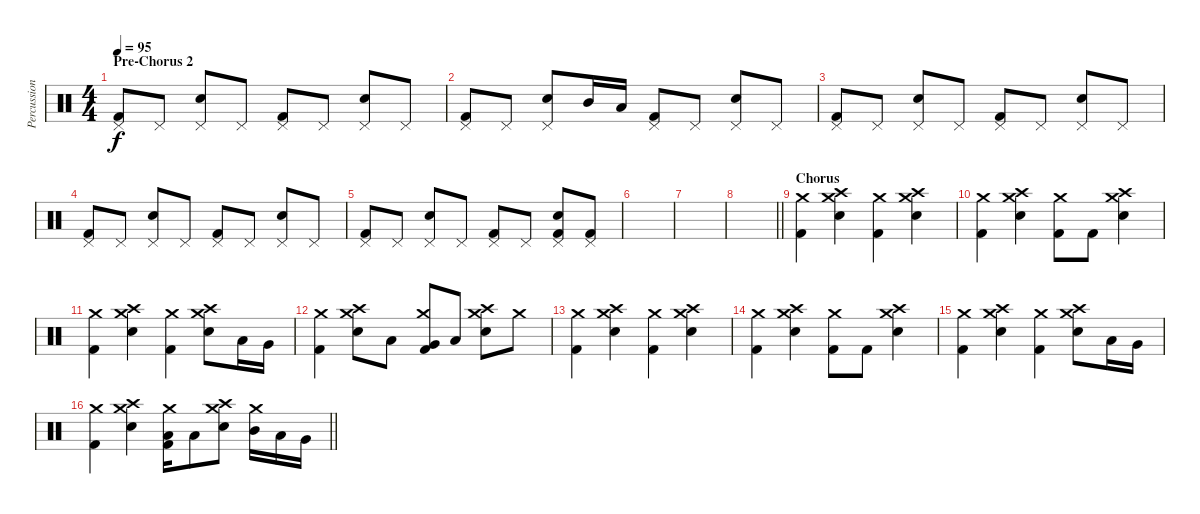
\track ("Percussion" "Percussion") {instrument percussion}
\staff {score}
\articulation defaults
\ts (4 4)
\section ("" "Pre-Chorus 2")
\tempo 95
\clef neutral
\ks c
("Pedal Hi-Hat (hit)" "Kick (hit) 2").8{dy f} "Pedal Hi-Hat (hit)".8 ("Pedal Hi-Hat (hit)" "Snare (hit) 2").8 "Pedal Hi-Hat (hit)".8 ("Pedal Hi-Hat (hit)" "Kick (hit) 2").8 "Pedal Hi-Hat (hit)".8 ("Pedal Hi-Hat (hit)" "Snare (hit) 2").8 "Pedal Hi-Hat (hit)".8 |
("Pedal Hi-Hat (hit)" "Kick (hit) 2").8 "Pedal Hi-Hat (hit)".8 ("Pedal Hi-Hat (hit)" "Snare (hit) 2").8 "Mid Tom (hit)".16 "Low Tom (hit)".16 ("Pedal Hi-Hat (hit)" "Kick (hit) 2").8 "Pedal Hi-Hat (hit)".8 ("Pedal Hi-Hat (hit)" "Snare (hit) 2").8 "Pedal Hi-Hat (hit)".8 |
("Pedal Hi-Hat (hit)" "Kick (hit) 2").8 "Pedal Hi-Hat (hit)".8 ("Pedal Hi-Hat (hit)" "Snare (hit) 2").8 "Pedal Hi-Hat (hit)".8 ("Pedal Hi-Hat (hit)" "Kick (hit) 2").8 "Pedal Hi-Hat (hit)".8 ("Pedal Hi-Hat (hit)" "Snare (hit) 2").8 "Pedal Hi-Hat (hit)".8 |
("Pedal Hi-Hat (hit)" "Kick (hit) 2").8 "Pedal Hi-Hat (hit)".8 ("Pedal Hi-Hat (hit)" "Snare (hit) 2").8 "Pedal Hi-Hat (hit)".8 ("Pedal Hi-Hat (hit)" "Kick (hit) 2").8 "Pedal Hi-Hat (hit)".8 ("Pedal Hi-Hat (hit)" "Snare (hit) 2").8 "Pedal Hi-Hat (hit)".8 |
("Pedal Hi-Hat (hit)" "Kick (hit) 2").8 "Pedal Hi-Hat (hit)".8 ("Pedal Hi-Hat (hit)" "Snare (hit) 2").8 "Pedal Hi-Hat (hit)".8 ("Pedal Hi-Hat (hit)" "Kick (hit) 2").8 "Pedal Hi-Hat (hit)".8 ("Pedal Hi-Hat (hit)" "Snare (hit) 2" "Kick (hit) 2").8 ("Pedal Hi-Hat (hit)" "Kick (hit) 2").8 |
|
|
\barLineRight lightlight
|
\section ("" "Chorus")
("Crash medium (hit)" "Kick (hit) 2").4 ("Crash high (hit)" "Crash medium (hit)" "Snare (hit) 2").4 ("Crash medium (hit)" "Kick (hit) 2").4 ("Crash high (hit)" "Crash medium (hit)" "Snare (hit) 2").4 |
("Crash medium (hit)" "Kick (hit) 2").4 ("Crash high (hit)" "Crash medium (hit)" "Snare (hit) 2").4 ("Crash medium (hit)" "Kick (hit) 2").8 "Kick (hit) 2".8 ("Crash high (hit)" "Crash medium (hit)" "Snare (hit) 2").4 |
("Crash medium (hit)" "Kick (hit) 2").4 ("Crash high (hit)" "Crash medium (hit)" "Snare (hit) 2").4 ("Crash medium (hit)" "Kick (hit) 2").4 ("Crash high (hit)" "Crash medium (hit)" "Snare (hit) 2").8 "Low Tom (hit)".16 "Very Low Tom (hit)".16 |
("Crash medium (hit)" "Kick (hit) 2").4 ("Crash high (hit)" "Crash medium (hit)" "Snare (hit) 2").8 "Low Tom (hit)".8 ("Crash medium (hit)" "Very Low Tom (hit)" "Kick (hit) 2").8 "Low Floor Tom (hit)".8 ("Crash high (hit)" "Crash medium (hit)" "Snare (hit) 2").8 "Crash medium (hit)".8 |
("Crash medium (hit)" "Kick (hit) 2").4 ("Crash high (hit)" "Crash medium (hit)" "Snare (hit) 2").4 ("Crash medium (hit)" "Kick (hit) 2").4 ("Crash high (hit)" "Crash medium (hit)" "Snare (hit) 2").4 |
("Crash medium (hit)" "Kick (hit) 2").4 ("Crash high (hit)" "Crash medium (hit)" "Snare (hit) 2").4 ("Crash medium (hit)" "Kick (hit) 2").8 "Kick (hit) 2".8 ("Crash high (hit)" "Crash medium (hit)" "Snare (hit) 2").4 |
("Crash medium (hit)" "Kick (hit) 2").4 ("Crash high (hit)" "Crash medium (hit)" "Snare (hit) 2").4 ("Crash medium (hit)" "Kick (hit) 2").4 ("Crash high (hit)" "Crash medium (hit)" "Snare (hit) 2").8 "Low Tom (hit)".16 "Very Low Tom (hit)".16 |
\barLineRight lightlight
("Crash medium (hit)" "Kick (hit) 2").4 ("Crash high (hit)" "Crash medium (hit)" "Snare (hit) 2").4 ("Crash medium (hit)" "Low Tom (hit)" "Kick (hit) 2").16 "Low Floor Tom (hit)".8 ("Crash medium (hit)" "Crash high (hit)" "Snare (hit) 2").8 ("Crash medium (hit)" "Mid Tom (hit)").16 "Low Tom (hit)".16 "Very Low Tom (hit)".16
